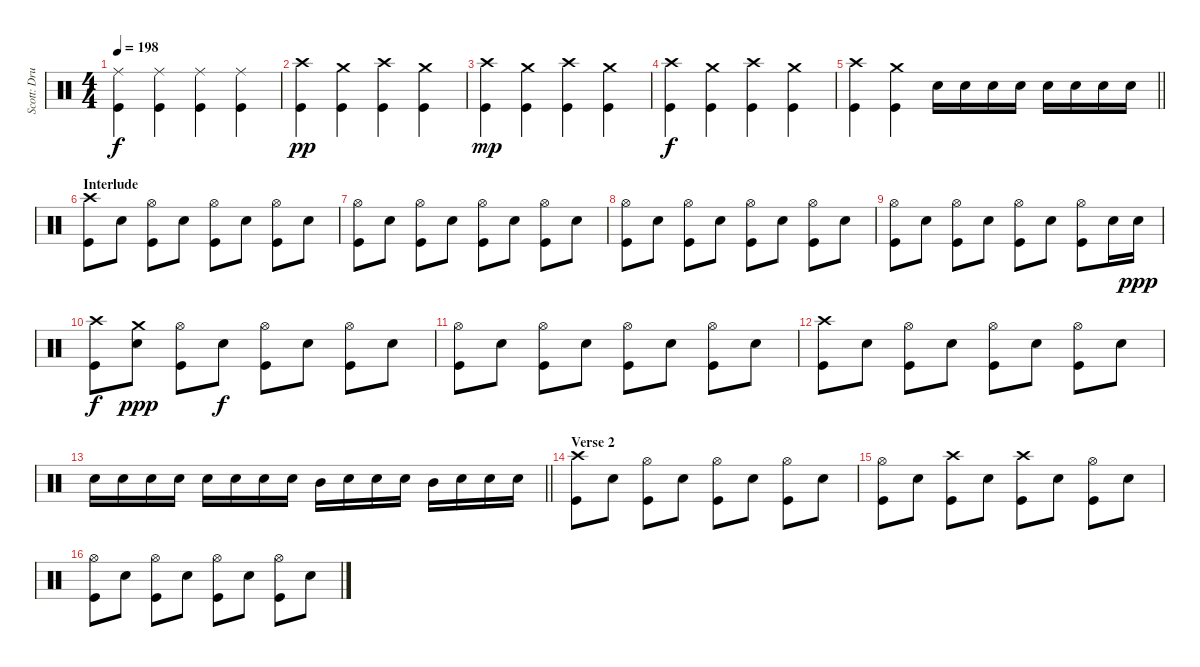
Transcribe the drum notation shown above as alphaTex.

\track ("Scott: Drums" "Scott: Dru") {instrument percussion}
\staff {score}
\articulation defaults
\ts (4 4)
\tempo 198
\clef neutral
\ks c
("Ride (middle)" "Kick (hit)").4{dy f} ("Ride (middle)" "Kick (hit)").4 ("Ride (middle)" "Kick (hit)").4 ("Ride (middle)" "Kick (hit)").4 |
("Crash high (hit)" "Kick (hit)").4{dy pp} ("Crash medium (hit)" "Kick (hit)").4 ("Crash high (hit)" "Kick (hit)").4 ("Crash medium (hit)" "Kick (hit)").4 |
("Crash high (hit)" "Kick (hit)").4{dy mp} ("Crash medium (hit)" "Kick (hit)").4 ("Crash high (hit)" "Kick (hit)").4 ("Crash medium (hit)" "Kick (hit)").4 |
("Crash high (hit)" "Kick (hit)").4{dy f} ("Crash medium (hit)" "Kick (hit)").4 ("Crash high (hit)" "Kick (hit)").4 ("Crash medium (hit)" "Kick (hit)").4 |
\barLineRight lightlight
("Crash high (hit)" "Kick (hit)").4 ("Crash medium (hit)" "Kick (hit)").4 "Electric Snare (hit)".16 "Electric Snare (hit)".16 "Electric Snare (hit)".16 "Electric Snare (hit)".16 "Electric Snare (hit)".16 "Electric Snare (hit)".16 "Electric Snare (hit)".16 "Electric Snare (hit)".16 |
\section ("" "Interlude")
("Crash high (hit)" "Kick (hit)").8 "Electric Snare (hit)".8 ("Hi-Hat (open)" "Kick (hit)").8 "Electric Snare (hit)".8 ("Hi-Hat (open)" "Kick (hit)").8 "Electric Snare (hit)".8 ("Hi-Hat (open)" "Kick (hit)").8 "Electric Snare (hit)".8 |
("Hi-Hat (open)" "Kick (hit)").8 "Electric Snare (hit)".8 ("Hi-Hat (open)" "Kick (hit)").8 "Electric Snare (hit)".8 ("Hi-Hat (open)" "Kick (hit)").8 "Electric Snare (hit)".8 ("Hi-Hat (open)" "Kick (hit)").8 "Electric Snare (hit)".8 |
("Hi-Hat (open)" "Kick (hit)").8 "Electric Snare (hit)".8 ("Hi-Hat (open)" "Kick (hit)").8 "Electric Snare (hit)".8 ("Hi-Hat (open)" "Kick (hit)").8 "Electric Snare (hit)".8 ("Hi-Hat (open)" "Kick (hit)").8 "Electric Snare (hit)".8 |
("Hi-Hat (open)" "Kick (hit)").8 "Electric Snare (hit)".8 ("Hi-Hat (open)" "Kick (hit)").8 "Electric Snare (hit)".8 ("Hi-Hat (open)" "Kick (hit)").8 "Electric Snare (hit)".8 ("Hi-Hat (open)" "Kick (hit)").8 "Electric Snare (hit)".16 "Electric Snare (hit)".16{dy ppp} |
("Crash high (hit)" "Kick (hit)").8{dy f} ("Crash medium (hit)" "Electric Snare (hit)").8{dy ppp} ("Hi-Hat (open)" "Kick (hit)").8 "Electric Snare (hit)".8{dy f} ("Hi-Hat (open)" "Kick (hit)").8 "Electric Snare (hit)".8 ("Hi-Hat (open)" "Kick (hit)").8 "Electric Snare (hit)".8 |
("Hi-Hat (open)" "Kick (hit)").8 "Electric Snare (hit)".8 ("Hi-Hat (open)" "Kick (hit)").8 "Electric Snare (hit)".8 ("Hi-Hat (open)" "Kick (hit)").8 "Electric Snare (hit)".8 ("Hi-Hat (open)" "Kick (hit)").8 "Electric Snare (hit)".8 |
("Crash high (hit)" "Kick (hit)").8 "Electric Snare (hit)".8 ("Hi-Hat (open)" "Kick (hit)").8 "Electric Snare (hit)".8 ("Hi-Hat (open)" "Kick (hit)").8 "Electric Snare (hit)".8 ("Hi-Hat (open)" "Kick (hit)").8 "Electric Snare (hit)".8 |
\barLineRight lightlight "Electric Snare (hit)".16 "Electric Snare (hit)".16 "Electric Snare (hit)".16 "Electric Snare (hit)".16 "Electric Snare (hit)".16 "Electric Snare (hit)".16 "Electric Snare (hit)".16 "Electric Snare (hit)".16 "Mid Tom (hit)".16 "Electric Snare (hit)".16 "Electric Snare (hit)".16 "Electric Snare (hit)".16 "Mid Tom (hit)".16 "Electric Snare (hit)".16 "Electric Snare (hit)".16 "Electric Snare (hit)".16
|
\section ("" "Verse 2")
("Crash high (hit)" "Kick (hit)").8 "Electric Snare (hit)".8 ("Hi-Hat (open)" "Kick (hit)").8 "Electric Snare (hit)".8 ("Hi-Hat (open)" "Kick (hit)").8 "Electric Snare (hit)".8 ("Hi-Hat (open)" "Kick (hit)").8 "Electric Snare (hit)".8 |
("Hi-Hat (open)" "Kick (hit)").8 "Electric Snare (hit)".8 ("Crash high (hit)" "Kick (hit)").8 "Electric Snare (hit)".8 ("Crash high (hit)" "Kick (hit)").8 "Electric Snare (hit)".8 ("Hi-Hat (open)" "Kick (hit)").8 "Electric Snare (hit)".8 |
("Hi-Hat (open)" "Kick (hit)").8 "Electric Snare (hit)".8 ("Hi-Hat (open)" "Kick (hit)").8 "Electric Snare (hit)".8 ("Hi-Hat (open)" "Kick (hit)").8 "Electric Snare (hit)".8 ("Hi-Hat (open)" "Kick (hit)").8 "Electric Snare (hit)".8
